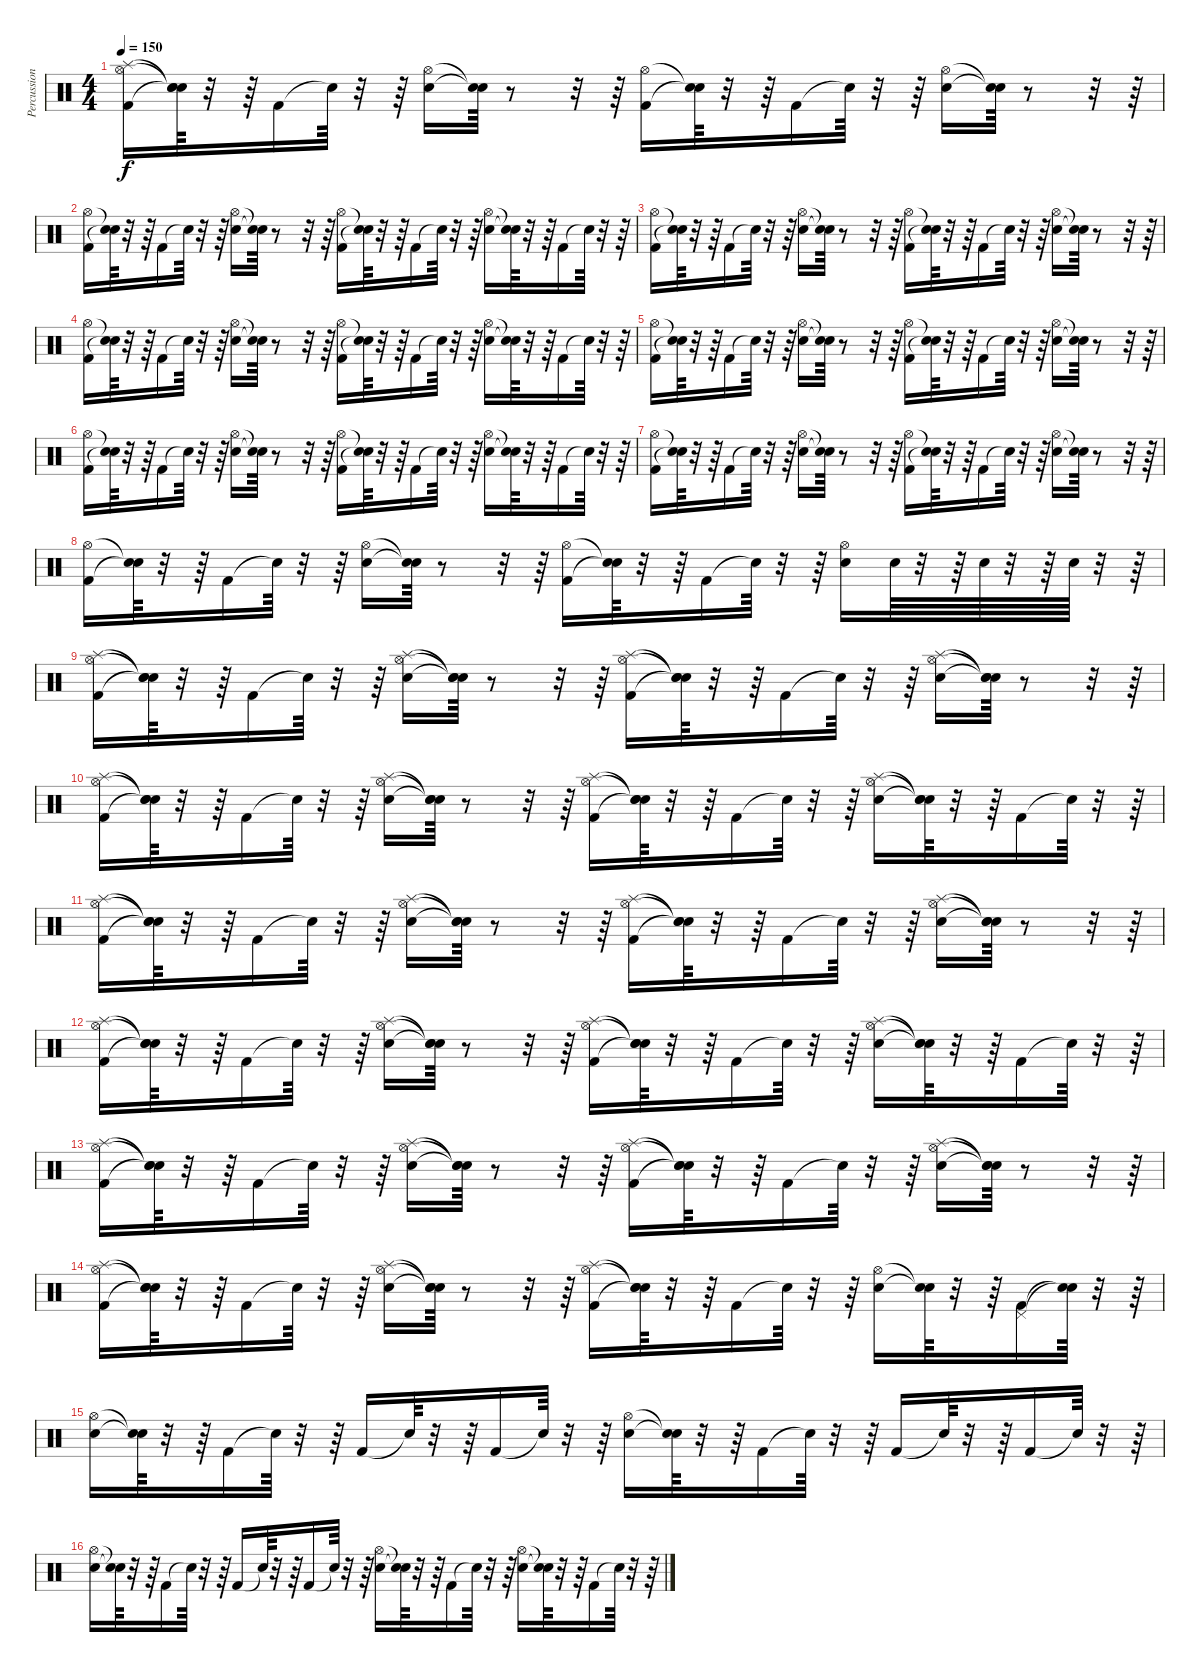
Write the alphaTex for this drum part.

\track ("Percussions" "Percussion") {instrument percussion}
\staff {score}
\articulation defaults
\ts (4 4)
\tempo 150
\clef neutral
\ks c
("Hi-Hat (open)" "Kick (hit) 2" "Splash (hit)").16{dy f} ("Snare (hit)"{t} "Snare (hit)"{t} "Snare (hit)"{t}).64 r.32 r.64 "Kick (hit) 2".16 "Snare (hit)"{t}.64 r.32 r.64 ("Hi-Hat (open)" "Electric Snare (hit)").16 ("Snare (hit)"{t} "Snare (hit)"{t}).64 r.8 r.32 r.64 ("Hi-Hat (open)" "Kick (hit) 2").16 ("Snare (hit)"{t} "Snare (hit)"{t}).64 r.32 r.64 "Kick (hit) 2".16 "Snare (hit)"{t}.64 r.32 r.64 ("Hi-Hat (open)" "Electric Snare (hit)").16 ("Snare (hit)"{t} "Snare (hit)"{t}).64 r.8 r.32 r.64 |
("Hi-Hat (open)" "Kick (hit) 2").16 ("Snare (hit)"{t} "Snare (hit)"{t}).64 r.32 r.64 "Kick (hit) 2".16 "Snare (hit)"{t}.64 r.32 r.64 ("Hi-Hat (open)" "Electric Snare (hit)").16 ("Snare (hit)"{t} "Snare (hit)"{t}).64 r.8 r.32 r.64 ("Hi-Hat (open)" "Kick (hit) 2").16 ("Snare (hit)"{t} "Snare (hit)"{t}).64 r.32 r.64 "Kick (hit) 2".16 "Snare (hit)"{t}.64 r.32 r.64 ("Hi-Hat (open)" "Electric Snare (hit)").16 ("Snare (hit)"{t} "Snare (hit)"{t}).64 r.32 r.64 "Kick (hit) 2".16 "Snare (hit)"{t}.64 r.32 r.64 |
("Hi-Hat (open)" "Kick (hit) 2").16 ("Snare (hit)"{t} "Snare (hit)"{t}).64 r.32 r.64 "Kick (hit) 2".16 "Snare (hit)"{t}.64 r.32 r.64 ("Hi-Hat (open)" "Electric Snare (hit)").16 ("Snare (hit)"{t} "Snare (hit)"{t}).64 r.8 r.32 r.64 ("Hi-Hat (open)" "Kick (hit) 2").16 ("Snare (hit)"{t} "Snare (hit)"{t}).64 r.32 r.64 "Kick (hit) 2".16 "Snare (hit)"{t}.64 r.32 r.64 ("Hi-Hat (open)" "Electric Snare (hit)").16 ("Snare (hit)"{t} "Snare (hit)"{t}).64 r.8 r.32 r.64 |
("Hi-Hat (open)" "Kick (hit) 2").16 ("Snare (hit)"{t} "Snare (hit)"{t}).64 r.32 r.64 "Kick (hit) 2".16 "Snare (hit)"{t}.64 r.32 r.64 ("Hi-Hat (open)" "Electric Snare (hit)").16 ("Snare (hit)"{t} "Snare (hit)"{t}).64 r.8 r.32 r.64 ("Hi-Hat (open)" "Kick (hit) 2").16 ("Snare (hit)"{t} "Snare (hit)"{t}).64 r.32 r.64 "Kick (hit) 2".16 "Snare (hit)"{t}.64 r.32 r.64 ("Hi-Hat (open)" "Electric Snare (hit)").16 ("Snare (hit)"{t} "Snare (hit)"{t}).64 r.32 r.64 "Kick (hit) 2".16 "Snare (hit)"{t}.64 r.32 r.64 |
("Hi-Hat (open)" "Kick (hit) 2").16 ("Snare (hit)"{t} "Snare (hit)"{t}).64 r.32 r.64 "Kick (hit) 2".16 "Snare (hit)"{t}.64 r.32 r.64 ("Hi-Hat (open)" "Electric Snare (hit)").16 ("Snare (hit)"{t} "Snare (hit)"{t}).64 r.8 r.32 r.64 ("Hi-Hat (open)" "Kick (hit) 2").16 ("Snare (hit)"{t} "Snare (hit)"{t}).64 r.32 r.64 "Kick (hit) 2".16 "Snare (hit)"{t}.64 r.32 r.64 ("Hi-Hat (open)" "Electric Snare (hit)").16 ("Snare (hit)"{t} "Snare (hit)"{t}).64 r.8 r.32 r.64 |
("Hi-Hat (open)" "Kick (hit) 2").16 ("Snare (hit)"{t} "Snare (hit)"{t}).64 r.32 r.64 "Kick (hit) 2".16 "Snare (hit)"{t}.64 r.32 r.64 ("Hi-Hat (open)" "Electric Snare (hit)").16 ("Snare (hit)"{t} "Snare (hit)"{t}).64 r.8 r.32 r.64 ("Hi-Hat (open)" "Kick (hit) 2").16 ("Snare (hit)"{t} "Snare (hit)"{t}).64 r.32 r.64 "Kick (hit) 2".16 "Snare (hit)"{t}.64 r.32 r.64 ("Hi-Hat (open)" "Electric Snare (hit)").16 ("Snare (hit)"{t} "Snare (hit)"{t}).64 r.32 r.64 "Kick (hit) 2".16 "Snare (hit)"{t}.64 r.32 r.64 |
("Hi-Hat (open)" "Kick (hit) 2").16 ("Snare (hit)"{t} "Snare (hit)"{t}).64 r.32 r.64 "Kick (hit) 2".16 "Snare (hit)"{t}.64 r.32 r.64 ("Hi-Hat (open)" "Electric Snare (hit)").16 ("Snare (hit)"{t} "Snare (hit)"{t}).64 r.8 r.32 r.64 ("Hi-Hat (open)" "Kick (hit) 2").16 ("Snare (hit)"{t} "Snare (hit)"{t}).64 r.32 r.64 "Kick (hit) 2".16 "Snare (hit)"{t}.64 r.32 r.64 ("Hi-Hat (open)" "Electric Snare (hit)").16 ("Snare (hit)"{t} "Snare (hit)"{t}).64 r.8 r.32 r.64 |
("Hi-Hat (open)" "Kick (hit) 2").16 ("Snare (hit)"{t} "Snare (hit)"{t}).64 r.32 r.64 "Kick (hit) 2".16 "Snare (hit)"{t}.64 r.32 r.64 ("Hi-Hat (open)" "Electric Snare (hit)").16 ("Snare (hit)"{t} "Snare (hit)"{t}).64 r.8 r.32 r.64 ("Hi-Hat (open)" "Kick (hit) 2").16 ("Snare (hit)"{t} "Snare (hit)"{t}).64 r.32 r.64 "Kick (hit) 2".16 "Snare (hit)"{t}.64 r.32 r.64 ("Hi-Hat (open)" "Electric Snare (hit)").16 "Electric Snare (hit)".64 r.32 r.64 "Electric Snare (hit)".64 r.32 r.64 "Electric Snare (hit)".64 r.32 r.64 |
("Kick (hit) 2" "Splash (hit)" "Hi-Hat (open)").16 ("Snare (hit)"{t} "Snare (hit)"{t} "Snare (hit)"{t}).64 r.32 r.64 "Kick (hit) 2".16 "Snare (hit)"{t}.64 r.32 r.64 ("Electric Snare (hit)" "Splash (hit)" "Hi-Hat (open)").16 ("Snare (hit)"{t} "Snare (hit)"{t} "Snare (hit)"{t}).64 r.8 r.32 r.64 ("Kick (hit) 2" "Splash (hit)" "Hi-Hat (open)").16 ("Snare (hit)"{t} "Snare (hit)"{t} "Snare (hit)"{t}).64 r.32 r.64 "Kick (hit) 2".16 "Snare (hit)"{t}.64 r.32 r.64 ("Electric Snare (hit)" "Splash (hit)" "Hi-Hat (open)").16 ("Snare (hit)"{t} "Snare (hit)"{t} "Snare (hit)"{t}).64 r.8 r.32 r.64 |
("Hi-Hat (open)" "Kick (hit) 2" "Splash (hit)").16 ("Snare (hit)"{t} "Snare (hit)"{t} "Snare (hit)"{t}).64 r.32 r.64 "Kick (hit) 2".16 "Snare (hit)"{t}.64 r.32 r.64 ("Hi-Hat (open)" "Electric Snare (hit)" "Splash (hit)").16 ("Snare (hit)"{t} "Snare (hit)"{t} "Snare (hit)"{t}).64 r.8 r.32 r.64 ("Hi-Hat (open)" "Kick (hit) 2" "Splash (hit)").16 ("Snare (hit)"{t} "Snare (hit)"{t} "Snare (hit)"{t}).64 r.32 r.64 "Kick (hit) 2".16 "Snare (hit)"{t}.64 r.32 r.64 ("Hi-Hat (open)" "Electric Snare (hit)" "Splash (hit)").16 ("Snare (hit)"{t} "Snare (hit)"{t} "Snare (hit)"{t}).64 r.32 r.64 "Kick (hit) 2".16 "Snare (hit)"{t}.64 r.32 r.64 |
("Kick (hit) 2" "Splash (hit)" "Hi-Hat (open)").16 ("Snare (hit)"{t} "Snare (hit)"{t} "Snare (hit)"{t}).64 r.32 r.64 "Kick (hit) 2".16 "Snare (hit)"{t}.64 r.32 r.64 ("Electric Snare (hit)" "Splash (hit)" "Hi-Hat (open)").16 ("Snare (hit)"{t} "Snare (hit)"{t} "Snare (hit)"{t}).64 r.8 r.32 r.64 ("Kick (hit) 2" "Splash (hit)" "Hi-Hat (open)").16 ("Snare (hit)"{t} "Snare (hit)"{t} "Snare (hit)"{t}).64 r.32 r.64 "Kick (hit) 2".16 "Snare (hit)"{t}.64 r.32 r.64 ("Electric Snare (hit)" "Splash (hit)" "Hi-Hat (open)").16 ("Snare (hit)"{t} "Snare (hit)"{t} "Snare (hit)"{t}).64 r.8 r.32 r.64 |
("Hi-Hat (open)" "Kick (hit) 2" "Splash (hit)").16 ("Snare (hit)"{t} "Snare (hit)"{t} "Snare (hit)"{t}).64 r.32 r.64 "Kick (hit) 2".16 "Snare (hit)"{t}.64 r.32 r.64 ("Hi-Hat (open)" "Electric Snare (hit)" "Splash (hit)").16 ("Snare (hit)"{t} "Snare (hit)"{t} "Snare (hit)"{t}).64 r.8 r.32 r.64 ("Hi-Hat (open)" "Kick (hit) 2" "Splash (hit)").16 ("Snare (hit)"{t} "Snare (hit)"{t} "Snare (hit)"{t}).64 r.32 r.64 "Kick (hit) 2".16 "Snare (hit)"{t}.64 r.32 r.64 ("Hi-Hat (open)" "Electric Snare (hit)" "Splash (hit)").16 ("Snare (hit)"{t} "Snare (hit)"{t} "Snare (hit)"{t}).64 r.32 r.64 "Kick (hit) 2".16 "Snare (hit)"{t}.64 r.32 r.64 |
("Kick (hit) 2" "Splash (hit)" "Hi-Hat (open)").16 ("Snare (hit)"{t} "Snare (hit)"{t} "Snare (hit)"{t}).64 r.32 r.64 "Kick (hit) 2".16 "Snare (hit)"{t}.64 r.32 r.64 ("Electric Snare (hit)" "Splash (hit)" "Hi-Hat (open)").16 ("Snare (hit)"{t} "Snare (hit)"{t} "Snare (hit)"{t}).64 r.8 r.32 r.64 ("Kick (hit) 2" "Splash (hit)" "Hi-Hat (open)").16 ("Snare (hit)"{t} "Snare (hit)"{t} "Snare (hit)"{t}).64 r.32 r.64 "Kick (hit) 2".16 "Snare (hit)"{t}.64 r.32 r.64 ("Electric Snare (hit)" "Splash (hit)" "Hi-Hat (open)").16 ("Snare (hit)"{t} "Snare (hit)"{t} "Snare (hit)"{t}).64 r.8 r.32 r.64 |
("Hi-Hat (open)" "Kick (hit) 2" "Splash (hit)").16 ("Snare (hit)"{t} "Snare (hit)"{t} "Snare (hit)"{t}).64 r.32 r.64 "Kick (hit) 2".16 "Snare (hit)"{t}.64 r.32 r.64 ("Hi-Hat (open)" "Electric Snare (hit)" "Splash (hit)").16 ("Snare (hit)"{t} "Snare (hit)"{t} "Snare (hit)"{t}).64 r.8 r.32 r.64 ("Hi-Hat (open)" "Kick (hit) 2" "Splash (hit)").16 ("Snare (hit)"{t} "Snare (hit)"{t} "Snare (hit)"{t}).64 r.32 r.64 "Kick (hit) 2".16 "Snare (hit)"{t}.64 r.32 r.64 ("Electric Snare (hit)" "Hi-Hat (open)").16 ("Snare (hit)"{t} "Snare (hit)"{t}).64 r.32 r.64 ("Kick (hit) 2" "Pedal Hi-Hat (hit)").16 ("Snare (hit)"{t} "Snare (hit)"{t}).64 r.32 r.64 |
("Electric Snare (hit)" "Hi-Hat (open)").16 ("Snare (hit)"{t} "Snare (hit)"{t}).64 r.32 r.64 "Kick (hit) 2".16 "Snare (hit)"{t}.64 r.32 r.64 "Kick (hit) 2".16 "Snare (hit)"{t}.64 r.32 r.64 "Kick (hit) 2".16 "Snare (hit)"{t}.64 r.32 r.64 ("Electric Snare (hit)" "Hi-Hat (open)").16 ("Snare (hit)"{t} "Snare (hit)"{t}).64 r.32 r.64 "Kick (hit) 2".16 "Snare (hit)"{t}.64 r.32 r.64 "Kick (hit) 2".16 "Snare (hit)"{t}.64 r.32 r.64 "Kick (hit) 2".16 "Snare (hit)"{t}.64 r.32 r.64 |
("Electric Snare (hit)" "Hi-Hat (open)").16 ("Snare (hit)"{t} "Snare (hit)"{t}).64 r.32 r.64 "Kick (hit) 2".16 "Snare (hit)"{t}.64 r.32 r.64 "Kick (hit) 2".16 "Snare (hit)"{t}.64 r.32 r.64 "Kick (hit) 2".16 "Snare (hit)"{t}.64 r.32 r.64 ("Electric Snare (hit)" "Hi-Hat (open)").16 ("Snare (hit)"{t} "Snare (hit)"{t}).64 r.32 r.64 "Kick (hit) 2".16 "Snare (hit)"{t}.64 r.32 r.64 ("Electric Snare (hit)" "Hi-Hat (open)").16 ("Snare (hit)"{t} "Snare (hit)"{t}).64 r.32 r.64 "Kick (hit) 2".16 "Snare (hit)"{t}.64 r.32 r.64
